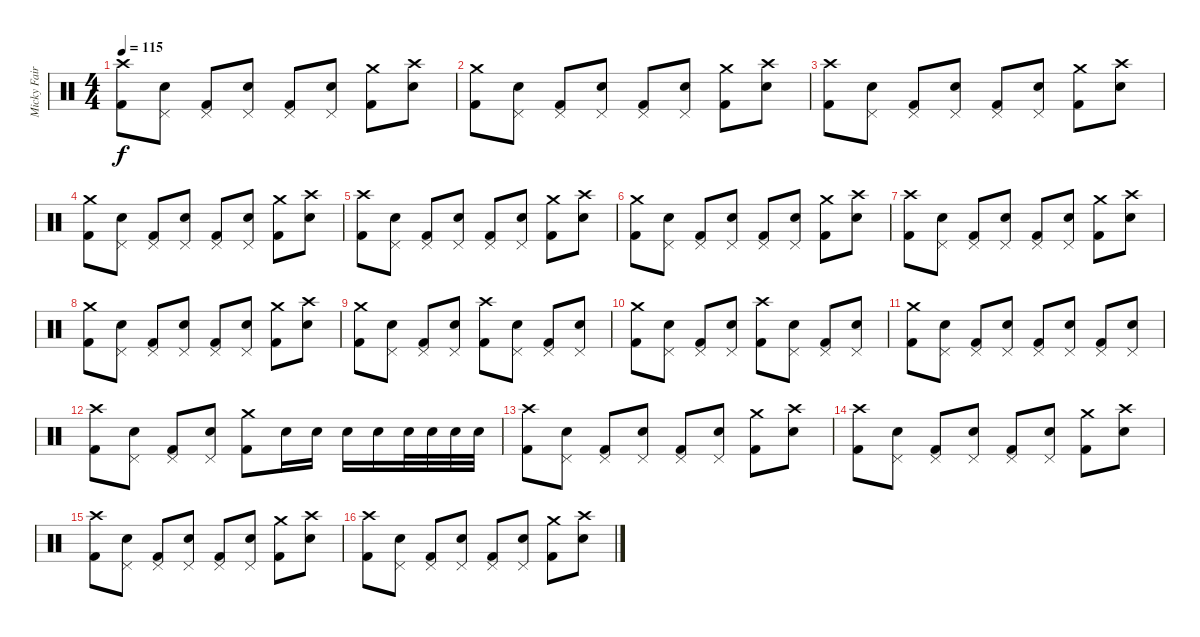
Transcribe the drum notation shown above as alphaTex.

\track ("Micky Fairbairn - Drums" "Micky Fair") {instrument percussion}
\staff {score}
\articulation defaults
\ts (4 4)
\tempo 115
\clef neutral
\ks c
("Crash high (hit)" "Kick (hit) 2").8{dy f} ("Pedal Hi-Hat (hit)" "Snare (hit) 2").8 ("Pedal Hi-Hat (hit)" "Kick (hit) 2").8 ("Pedal Hi-Hat (hit)" "Snare (hit) 2").8 ("Pedal Hi-Hat (hit)" "Kick (hit) 2").8 ("Pedal Hi-Hat (hit)" "Snare (hit) 2").8 ("Crash medium (hit)" "Kick (hit) 2").8 ("Crash high (hit)" "Snare (hit) 2").8 |
("Crash medium (hit)" "Kick (hit) 2").8 ("Pedal Hi-Hat (hit)" "Snare (hit) 2").8 ("Pedal Hi-Hat (hit)" "Kick (hit) 2").8 ("Pedal Hi-Hat (hit)" "Snare (hit) 2").8 ("Pedal Hi-Hat (hit)" "Kick (hit) 2").8 ("Pedal Hi-Hat (hit)" "Snare (hit) 2").8 ("Crash medium (hit)" "Kick (hit) 2").8 ("Crash high (hit)" "Snare (hit) 2").8 |
("Crash high (hit)" "Kick (hit) 2").8 ("Pedal Hi-Hat (hit)" "Snare (hit) 2").8 ("Pedal Hi-Hat (hit)" "Kick (hit) 2").8 ("Pedal Hi-Hat (hit)" "Snare (hit) 2").8 ("Pedal Hi-Hat (hit)" "Kick (hit) 2").8 ("Pedal Hi-Hat (hit)" "Snare (hit) 2").8 ("Crash medium (hit)" "Kick (hit) 2").8 ("Crash high (hit)" "Snare (hit) 2").8 |
("Crash medium (hit)" "Kick (hit) 2").8 ("Pedal Hi-Hat (hit)" "Snare (hit) 2").8 ("Pedal Hi-Hat (hit)" "Kick (hit) 2").8 ("Pedal Hi-Hat (hit)" "Snare (hit) 2").8 ("Pedal Hi-Hat (hit)" "Kick (hit) 2").8 ("Pedal Hi-Hat (hit)" "Snare (hit) 2").8 ("Crash medium (hit)" "Kick (hit) 2").8 ("Crash high (hit)" "Snare (hit) 2").8 |
("Crash high (hit)" "Kick (hit) 2").8 ("Pedal Hi-Hat (hit)" "Snare (hit) 2").8 ("Pedal Hi-Hat (hit)" "Kick (hit) 2").8 ("Pedal Hi-Hat (hit)" "Snare (hit) 2").8 ("Pedal Hi-Hat (hit)" "Kick (hit) 2").8 ("Pedal Hi-Hat (hit)" "Snare (hit) 2").8 ("Crash medium (hit)" "Kick (hit) 2").8 ("Crash high (hit)" "Snare (hit) 2").8 |
("Crash medium (hit)" "Kick (hit) 2").8 ("Pedal Hi-Hat (hit)" "Snare (hit) 2").8 ("Pedal Hi-Hat (hit)" "Kick (hit) 2").8 ("Pedal Hi-Hat (hit)" "Snare (hit) 2").8 ("Pedal Hi-Hat (hit)" "Kick (hit) 2").8 ("Pedal Hi-Hat (hit)" "Snare (hit) 2").8 ("Crash medium (hit)" "Kick (hit) 2").8 ("Crash high (hit)" "Snare (hit) 2").8 |
("Crash high (hit)" "Kick (hit) 2").8 ("Pedal Hi-Hat (hit)" "Snare (hit) 2").8 ("Pedal Hi-Hat (hit)" "Kick (hit) 2").8 ("Pedal Hi-Hat (hit)" "Snare (hit) 2").8 ("Pedal Hi-Hat (hit)" "Kick (hit) 2").8 ("Pedal Hi-Hat (hit)" "Snare (hit) 2").8 ("Crash medium (hit)" "Kick (hit) 2").8 ("Crash high (hit)" "Snare (hit) 2").8 |
("Crash medium (hit)" "Kick (hit) 2").8 ("Pedal Hi-Hat (hit)" "Snare (hit) 2").8 ("Pedal Hi-Hat (hit)" "Kick (hit) 2").8 ("Pedal Hi-Hat (hit)" "Snare (hit) 2").8 ("Pedal Hi-Hat (hit)" "Kick (hit) 2").8 ("Pedal Hi-Hat (hit)" "Snare (hit) 2").8 ("Crash medium (hit)" "Kick (hit) 2").8 ("Crash high (hit)" "Snare (hit) 2").8 |
("Crash medium (hit)" "Kick (hit) 2").8 ("Pedal Hi-Hat (hit)" "Snare (hit) 2").8 ("Pedal Hi-Hat (hit)" "Kick (hit) 2").8 ("Pedal Hi-Hat (hit)" "Snare (hit) 2").8 ("Crash high (hit)" "Kick (hit) 2").8 ("Pedal Hi-Hat (hit)" "Snare (hit) 2").8 ("Pedal Hi-Hat (hit)" "Kick (hit) 2").8 ("Pedal Hi-Hat (hit)" "Snare (hit) 2").8 |
("Crash medium (hit)" "Kick (hit) 2").8 ("Pedal Hi-Hat (hit)" "Snare (hit) 2").8 ("Pedal Hi-Hat (hit)" "Kick (hit) 2").8 ("Pedal Hi-Hat (hit)" "Snare (hit) 2").8 ("Crash high (hit)" "Kick (hit) 2").8 ("Pedal Hi-Hat (hit)" "Snare (hit) 2").8 ("Pedal Hi-Hat (hit)" "Kick (hit) 2").8 ("Pedal Hi-Hat (hit)" "Snare (hit) 2").8 |
("Crash medium (hit)" "Kick (hit) 2").8 ("Pedal Hi-Hat (hit)" "Snare (hit) 2").8 ("Pedal Hi-Hat (hit)" "Kick (hit) 2").8 ("Pedal Hi-Hat (hit)" "Snare (hit) 2").8 ("Pedal Hi-Hat (hit)" "Kick (hit) 2").8 ("Pedal Hi-Hat (hit)" "Snare (hit) 2").8 ("Pedal Hi-Hat (hit)" "Kick (hit) 2").8 ("Pedal Hi-Hat (hit)" "Snare (hit) 2").8 |
("Crash high (hit)" "Kick (hit) 2").8 ("Pedal Hi-Hat (hit)" "Snare (hit) 2").8 ("Pedal Hi-Hat (hit)" "Kick (hit) 2").8 ("Pedal Hi-Hat (hit)" "Snare (hit) 2").8 ("Crash medium (hit)" "Kick (hit) 2").8 "Snare (hit) 2".16 "Snare (hit) 2".16 "Snare (hit) 2".16 "Snare (hit) 2".16 "Snare (hit) 2".32 "Snare (hit) 2".32 "Snare (hit) 2".32 "Snare (hit) 2".32 |
("Crash high (hit)" "Kick (hit) 2").8 ("Pedal Hi-Hat (hit)" "Snare (hit) 2").8 ("Pedal Hi-Hat (hit)" "Kick (hit) 2").8 ("Pedal Hi-Hat (hit)" "Snare (hit) 2").8 ("Pedal Hi-Hat (hit)" "Kick (hit) 2").8 ("Pedal Hi-Hat (hit)" "Snare (hit) 2").8 ("Crash medium (hit)" "Kick (hit) 2").8 ("Crash high (hit)" "Snare (hit) 2").8 |
("Crash high (hit)" "Kick (hit) 2").8 ("Pedal Hi-Hat (hit)" "Snare (hit) 2").8 ("Pedal Hi-Hat (hit)" "Kick (hit) 2").8 ("Pedal Hi-Hat (hit)" "Snare (hit) 2").8 ("Pedal Hi-Hat (hit)" "Kick (hit) 2").8 ("Pedal Hi-Hat (hit)" "Snare (hit) 2").8 ("Crash medium (hit)" "Kick (hit) 2").8 ("Crash high (hit)" "Snare (hit) 2").8 |
("Crash high (hit)" "Kick (hit) 2").8 ("Pedal Hi-Hat (hit)" "Snare (hit) 2").8 ("Pedal Hi-Hat (hit)" "Kick (hit) 2").8 ("Pedal Hi-Hat (hit)" "Snare (hit) 2").8 ("Pedal Hi-Hat (hit)" "Kick (hit) 2").8 ("Pedal Hi-Hat (hit)" "Snare (hit) 2").8 ("Crash medium (hit)" "Kick (hit) 2").8 ("Crash high (hit)" "Snare (hit) 2").8 |
("Crash high (hit)" "Kick (hit) 2").8 ("Pedal Hi-Hat (hit)" "Snare (hit) 2").8 ("Pedal Hi-Hat (hit)" "Kick (hit) 2").8 ("Pedal Hi-Hat (hit)" "Snare (hit) 2").8 ("Pedal Hi-Hat (hit)" "Kick (hit) 2").8 ("Pedal Hi-Hat (hit)" "Snare (hit) 2").8 ("Crash medium (hit)" "Kick (hit) 2").8 ("Crash high (hit)" "Snare (hit) 2").8
